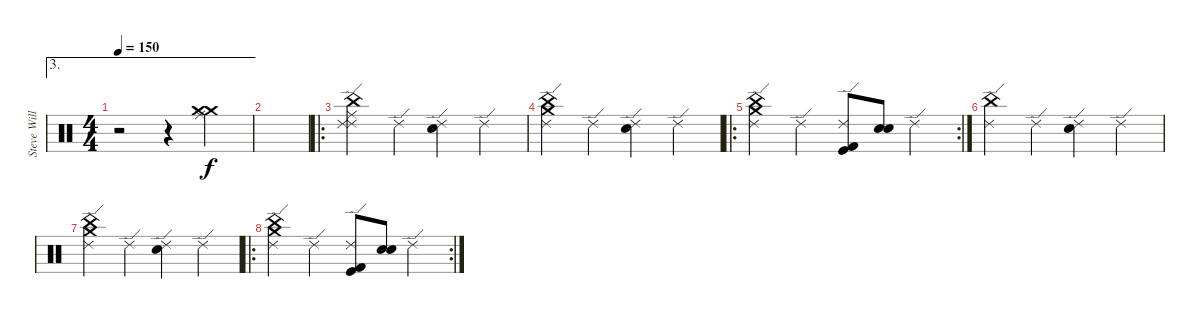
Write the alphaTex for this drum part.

\track ("Steve Williams" "Steve Will") {instrument percussion}
\staff {score}
\articulation defaults
\ae 3
\ts (4 4)
\tempo 150
\clef neutral
\ks c
r.2{dy f} r.4 ("Crash medium (hit)" "Crash medium (hit)" "Ride (middle)").4 |
|
\ro
("China (hit)" "Ride (edge) 2" "Ride (edge) 2" "Ride (middle)").4 "Ride (edge) 2".4 ("Ride (edge) 2" "Snare (hit) 2").4 "Ride (edge) 2".4 |
("China (hit)" "Ride (edge) 2" "Crash medium (hit)").4 "Ride (edge) 2".4 ("Ride (edge) 2" "Snare (hit) 2").4 "Ride (edge) 2".4 |
\ro
\rc 2
("China (hit)" "Ride (edge) 2" "Crash medium (hit)").4 "Ride (edge) 2".4 ("Kick (hit)" "Kick (hit) 2" "Ride (edge) 2").8 ("Electric Snare (hit)" "Snare (hit) 2").8 "Ride (edge) 2".4 |
("China (hit)" "Ride (edge) 2").4 "Ride (edge) 2".4 ("Ride (edge) 2" "Snare (hit) 2").4 "Ride (edge) 2".4 |
("China (hit)" "Ride (edge) 2" "Crash medium (hit)").4 "Ride (edge) 2".4 ("Ride (edge) 2" "Snare (hit) 2").4 "Ride (edge) 2".4 |
\ro
\rc 2
("China (hit)" "Ride (edge) 2" "Crash medium (hit)").4 "Ride (edge) 2".4 ("Kick (hit)" "Kick (hit) 2" "Ride (edge) 2").8 ("Electric Snare (hit)" "Snare (hit) 2").8 "Ride (edge) 2".4
